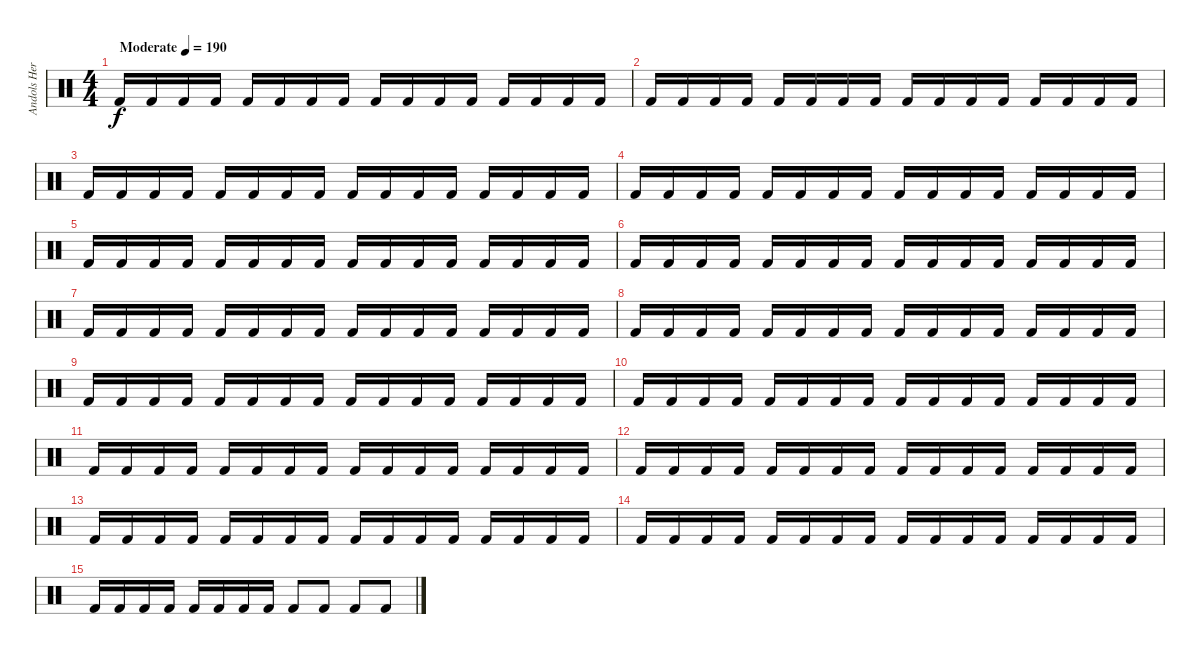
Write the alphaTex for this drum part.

\track ("Andols Herrick [KICK]" "Andols Her") {instrument percussion}
\staff {score}
\articulation defaults
\ts (4 4)
\tempo (190 "Moderate")
\clef neutral
\ks c "Kick (hit) 2".16{dy f} "Kick (hit) 2".16 "Kick (hit) 2".16 "Kick (hit) 2".16 "Kick (hit) 2".16 "Kick (hit) 2".16 "Kick (hit) 2".16 "Kick (hit) 2".16 "Kick (hit) 2".16 "Kick (hit) 2".16 "Kick (hit) 2".16 "Kick (hit) 2".16 "Kick (hit) 2".16 "Kick (hit) 2".16 "Kick (hit) 2".16 "Kick (hit) 2".16
|
"Kick (hit) 2".16 "Kick (hit) 2".16 "Kick (hit) 2".16 "Kick (hit) 2".16 "Kick (hit) 2".16 "Kick (hit) 2".16 "Kick (hit) 2".16 "Kick (hit) 2".16 "Kick (hit) 2".16 "Kick (hit) 2".16 "Kick (hit) 2".16 "Kick (hit) 2".16 "Kick (hit) 2".16 "Kick (hit) 2".16 "Kick (hit) 2".16 "Kick (hit) 2".16 |
"Kick (hit) 2".16 "Kick (hit) 2".16 "Kick (hit) 2".16 "Kick (hit) 2".16 "Kick (hit) 2".16 "Kick (hit) 2".16 "Kick (hit) 2".16 "Kick (hit) 2".16 "Kick (hit) 2".16 "Kick (hit) 2".16 "Kick (hit) 2".16 "Kick (hit) 2".16 "Kick (hit) 2".16 "Kick (hit) 2".16 "Kick (hit) 2".16 "Kick (hit) 2".16 |
"Kick (hit) 2".16 "Kick (hit) 2".16 "Kick (hit) 2".16 "Kick (hit) 2".16 "Kick (hit) 2".16 "Kick (hit) 2".16 "Kick (hit) 2".16 "Kick (hit) 2".16 "Kick (hit) 2".16 "Kick (hit) 2".16 "Kick (hit) 2".16 "Kick (hit) 2".16 "Kick (hit) 2".16 "Kick (hit) 2".16 "Kick (hit) 2".16 "Kick (hit) 2".16 |
"Kick (hit) 2".16 "Kick (hit) 2".16 "Kick (hit) 2".16 "Kick (hit) 2".16 "Kick (hit) 2".16 "Kick (hit) 2".16 "Kick (hit) 2".16 "Kick (hit) 2".16 "Kick (hit) 2".16 "Kick (hit) 2".16 "Kick (hit) 2".16 "Kick (hit) 2".16 "Kick (hit) 2".16 "Kick (hit) 2".16 "Kick (hit) 2".16 "Kick (hit) 2".16 |
"Kick (hit) 2".16 "Kick (hit) 2".16 "Kick (hit) 2".16 "Kick (hit) 2".16 "Kick (hit) 2".16 "Kick (hit) 2".16 "Kick (hit) 2".16 "Kick (hit) 2".16 "Kick (hit) 2".16 "Kick (hit) 2".16 "Kick (hit) 2".16 "Kick (hit) 2".16 "Kick (hit) 2".16 "Kick (hit) 2".16 "Kick (hit) 2".16 "Kick (hit) 2".16 |
"Kick (hit) 2".16 "Kick (hit) 2".16 "Kick (hit) 2".16 "Kick (hit) 2".16 "Kick (hit) 2".16 "Kick (hit) 2".16 "Kick (hit) 2".16 "Kick (hit) 2".16 "Kick (hit) 2".16 "Kick (hit) 2".16 "Kick (hit) 2".16 "Kick (hit) 2".16 "Kick (hit) 2".16 "Kick (hit) 2".16 "Kick (hit) 2".16 "Kick (hit) 2".16 |
"Kick (hit) 2".16 "Kick (hit) 2".16 "Kick (hit) 2".16 "Kick (hit) 2".16 "Kick (hit) 2".16 "Kick (hit) 2".16 "Kick (hit) 2".16 "Kick (hit) 2".16 "Kick (hit) 2".16 "Kick (hit) 2".16 "Kick (hit) 2".16 "Kick (hit) 2".16 "Kick (hit) 2".16 "Kick (hit) 2".16 "Kick (hit) 2".16 "Kick (hit) 2".16 |
"Kick (hit) 2".16 "Kick (hit) 2".16 "Kick (hit) 2".16 "Kick (hit) 2".16 "Kick (hit) 2".16 "Kick (hit) 2".16 "Kick (hit) 2".16 "Kick (hit) 2".16 "Kick (hit) 2".16 "Kick (hit) 2".16 "Kick (hit) 2".16 "Kick (hit) 2".16 "Kick (hit) 2".16 "Kick (hit) 2".16 "Kick (hit) 2".16 "Kick (hit) 2".16 |
"Kick (hit) 2".16 "Kick (hit) 2".16 "Kick (hit) 2".16 "Kick (hit) 2".16 "Kick (hit) 2".16 "Kick (hit) 2".16 "Kick (hit) 2".16 "Kick (hit) 2".16 "Kick (hit) 2".16 "Kick (hit) 2".16 "Kick (hit) 2".16 "Kick (hit) 2".16 "Kick (hit) 2".16 "Kick (hit) 2".16 "Kick (hit) 2".16 "Kick (hit) 2".16 |
"Kick (hit) 2".16 "Kick (hit) 2".16 "Kick (hit) 2".16 "Kick (hit) 2".16 "Kick (hit) 2".16 "Kick (hit) 2".16 "Kick (hit) 2".16 "Kick (hit) 2".16 "Kick (hit) 2".16 "Kick (hit) 2".16 "Kick (hit) 2".16 "Kick (hit) 2".16 "Kick (hit) 2".16 "Kick (hit) 2".16 "Kick (hit) 2".16 "Kick (hit) 2".16 |
"Kick (hit) 2".16 "Kick (hit) 2".16 "Kick (hit) 2".16 "Kick (hit) 2".16 "Kick (hit) 2".16 "Kick (hit) 2".16 "Kick (hit) 2".16 "Kick (hit) 2".16 "Kick (hit) 2".16 "Kick (hit) 2".16 "Kick (hit) 2".16 "Kick (hit) 2".16 "Kick (hit) 2".16 "Kick (hit) 2".16 "Kick (hit) 2".16 "Kick (hit) 2".16 |
"Kick (hit) 2".16 "Kick (hit) 2".16 "Kick (hit) 2".16 "Kick (hit) 2".16 "Kick (hit) 2".16 "Kick (hit) 2".16 "Kick (hit) 2".16 "Kick (hit) 2".16 "Kick (hit) 2".16 "Kick (hit) 2".16 "Kick (hit) 2".16 "Kick (hit) 2".16 "Kick (hit) 2".16 "Kick (hit) 2".16 "Kick (hit) 2".16 "Kick (hit) 2".16 |
"Kick (hit) 2".16 "Kick (hit) 2".16 "Kick (hit) 2".16 "Kick (hit) 2".16 "Kick (hit) 2".16 "Kick (hit) 2".16 "Kick (hit) 2".16 "Kick (hit) 2".16 "Kick (hit) 2".16 "Kick (hit) 2".16 "Kick (hit) 2".16 "Kick (hit) 2".16 "Kick (hit) 2".16 "Kick (hit) 2".16 "Kick (hit) 2".16 "Kick (hit) 2".16 |
"Kick (hit) 2".16 "Kick (hit) 2".16 "Kick (hit) 2".16 "Kick (hit) 2".16 "Kick (hit) 2".16 "Kick (hit) 2".16 "Kick (hit) 2".16 "Kick (hit) 2".16 "Kick (hit) 2".8 "Kick (hit) 2".8 "Kick (hit) 2".8 "Kick (hit) 2".8
